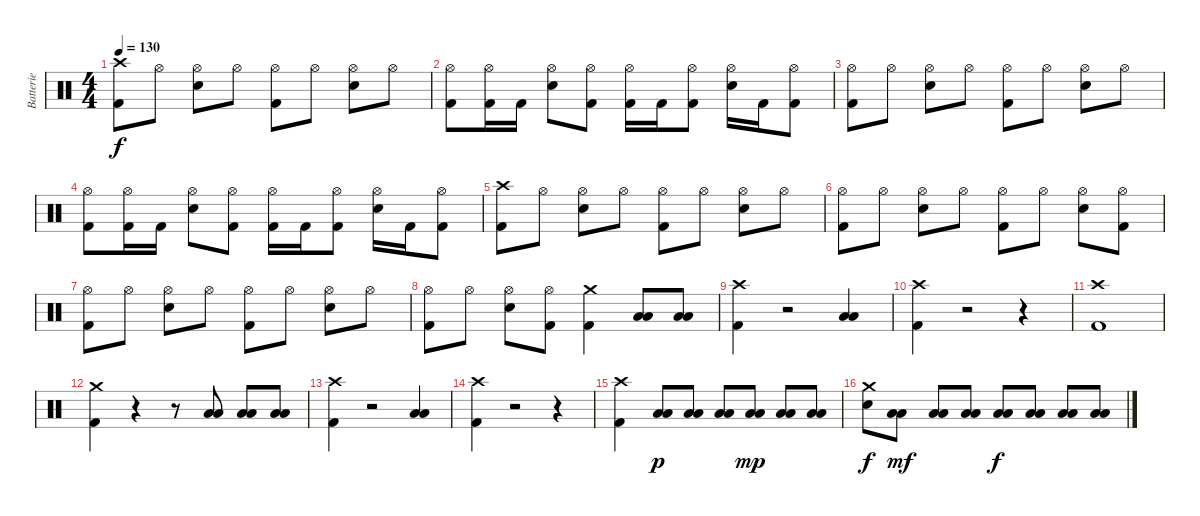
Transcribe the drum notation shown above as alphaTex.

\track ("Batterie" "Batterie") {instrument percussion}
\staff {score}
\articulation defaults
\ts (4 4)
\tempo 130
\clef neutral
\ks c
("Crash high (hit)" "Kick (hit) 2").8{dy f} "Hi-Hat (open)".8 ("Hi-Hat (open)" "Electric Snare (hit)").8 "Hi-Hat (open)".8 ("Hi-Hat (open)" "Kick (hit) 2").8 "Hi-Hat (open)".8 ("Hi-Hat (open)" "Electric Snare (hit)").8 "Hi-Hat (open)".8 |
("Hi-Hat (open)" "Kick (hit) 2").8 ("Hi-Hat (open)" "Kick (hit) 2").16 "Kick (hit) 2".16 ("Hi-Hat (open)" "Electric Snare (hit)").8 ("Hi-Hat (open)" "Kick (hit) 2").8 ("Hi-Hat (open)" "Kick (hit) 2").16 "Kick (hit) 2".16 ("Hi-Hat (open)" "Kick (hit) 2").8 ("Hi-Hat (open)" "Electric Snare (hit)").16 "Kick (hit) 2".16 ("Hi-Hat (open)" "Kick (hit) 2").8 |
("Hi-Hat (open)" "Kick (hit) 2").8 "Hi-Hat (open)".8 ("Hi-Hat (open)" "Electric Snare (hit)").8 "Hi-Hat (open)".8 ("Hi-Hat (open)" "Kick (hit) 2").8 "Hi-Hat (open)".8 ("Hi-Hat (open)" "Electric Snare (hit)").8 "Hi-Hat (open)".8 |
("Hi-Hat (open)" "Kick (hit) 2").8 ("Hi-Hat (open)" "Kick (hit) 2").16 "Kick (hit) 2".16 ("Hi-Hat (open)" "Electric Snare (hit)").8 ("Hi-Hat (open)" "Kick (hit) 2").8 ("Hi-Hat (open)" "Kick (hit) 2").16 "Kick (hit) 2".16 ("Hi-Hat (open)" "Kick (hit) 2").8 ("Hi-Hat (open)" "Electric Snare (hit)").16 "Kick (hit) 2".16 ("Hi-Hat (open)" "Kick (hit) 2").8 |
("Crash high (hit)" "Kick (hit) 2").8 "Hi-Hat (open)".8 ("Hi-Hat (open)" "Electric Snare (hit)").8 "Hi-Hat (open)".8 ("Hi-Hat (open)" "Kick (hit) 2").8 "Hi-Hat (open)".8 ("Hi-Hat (open)" "Electric Snare (hit)").8 "Hi-Hat (open)".8 |
("Hi-Hat (open)" "Kick (hit) 2").8 "Hi-Hat (open)".8 ("Hi-Hat (open)" "Electric Snare (hit)").8 "Hi-Hat (open)".8 ("Hi-Hat (open)" "Kick (hit) 2").8 "Hi-Hat (open)".8 ("Hi-Hat (open)" "Electric Snare (hit)").8 ("Hi-Hat (open)" "Kick (hit) 2").8 |
("Hi-Hat (open)" "Kick (hit) 2").8 "Hi-Hat (open)".8 ("Hi-Hat (open)" "Electric Snare (hit)").8 "Hi-Hat (open)".8 ("Hi-Hat (open)" "Kick (hit) 2").8 "Hi-Hat (open)".8 ("Hi-Hat (open)" "Electric Snare (hit)").8 "Hi-Hat (open)".8 |
("Hi-Hat (open)" "Kick (hit) 2").8 "Hi-Hat (open)".8 ("Hi-Hat (open)" "Electric Snare (hit)").8 ("Hi-Hat (open)" "Kick (hit) 2").8 ("Crash medium (hit)" "Kick (hit) 2").4 ("Low Tom (hit)" "Low Floor Tom (hit)").8{bu 60} ("Low Tom (hit)" "Low Floor Tom (hit)").8{bu 60} |
("Crash high (hit)" "Kick (hit) 2").4 r.2 ("Low Tom (hit)" "Low Floor Tom (hit)").4{bu 60} |
("Crash high (hit)" "Kick (hit) 2").4 r.2 r.4 |
("Crash high (hit)" "Kick (hit) 2").1 |
("Crash medium (hit)" "Kick (hit) 2").4 r.4 r.8 ("Low Tom (hit)" "Low Floor Tom (hit)").8{bu 60} ("Low Tom (hit)" "Low Floor Tom (hit)").8{bu 60} ("Low Tom (hit)" "Low Floor Tom (hit)").8{bu 60} |
("Crash high (hit)" "Kick (hit) 2").4 r.2 ("Low Tom (hit)" "Low Floor Tom (hit)").4{bu 60} |
("Crash high (hit)" "Kick (hit) 2").4 r.2 r.4 |
("Crash high (hit)" "Kick (hit) 2").4 ("Low Tom (hit)" "Low Floor Tom (hit)").8{bu 60 dy p} ("Low Tom (hit)" "Low Floor Tom (hit)").8{bu 60} ("Low Tom (hit)" "Low Floor Tom (hit)").8{bu 60} ("Low Tom (hit)" "Low Floor Tom (hit)").8{bu 60 dy mp} ("Low Tom (hit)" "Low Floor Tom (hit)").8{bu 60} ("Low Tom (hit)" "Low Floor Tom (hit)").8{bu 60} |
("Crash medium (hit)" "Electric Snare (hit)").8{dy f} ("Low Tom (hit)" "Low Floor Tom (hit)").8{bu 60 dy mf} ("Low Tom (hit)" "Low Floor Tom (hit)").8{bu 60} ("Low Tom (hit)" "Low Floor Tom (hit)").8{bu 60} ("Low Tom (hit)" "Low Floor Tom (hit)").8{bu 60 dy f} ("Low Tom (hit)" "Low Floor Tom (hit)").8{bu 60} ("Low Tom (hit)" "Low Floor Tom (hit)").8{bu 60} ("Low Tom (hit)" "Low Floor Tom (hit)").8{bu 60}
